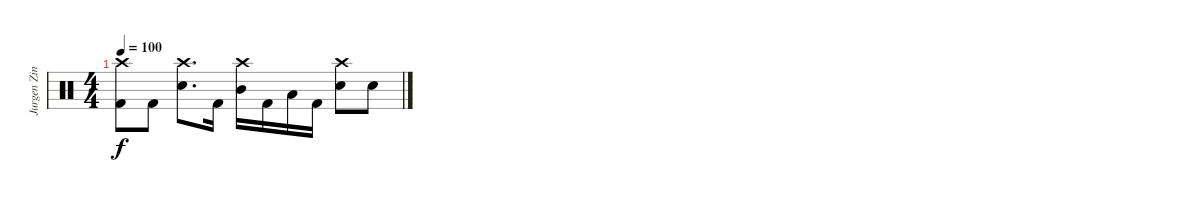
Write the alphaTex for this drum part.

\track ("Jurgen Zing" "Jurgen Zin") {instrument percussion}
\staff {score}
\articulation defaults
\ts (4 4)
\tempo 100
\clef neutral
\ks c
("Crash high (hit)" "Kick (hit) 2").8{dy f} "Kick (hit) 2".8 ("Crash high (hit)" "Electric Snare (hit)").8{d} "Kick (hit) 2".16 ("Crash high (hit)" "Mid Tom (hit)").16 "Kick (hit) 2".16 "Low Tom (hit)".16 "Kick (hit) 2".16 ("Crash high (hit)" "Electric Snare (hit)").8 "Electric Snare (hit)".8
